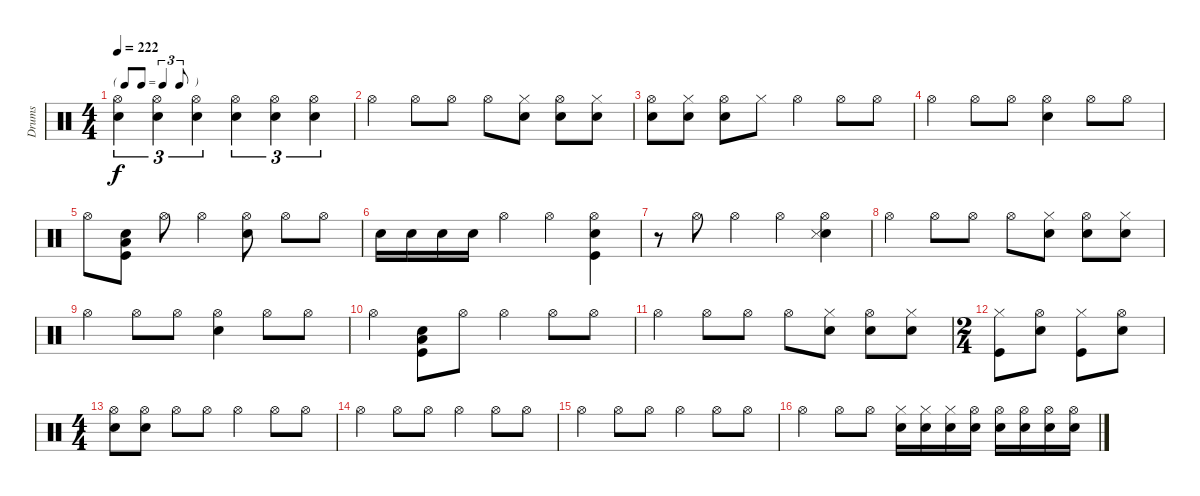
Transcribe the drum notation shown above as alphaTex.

\track ("Drums" "Drums") {instrument percussion}
\staff {score}
\articulation defaults
\ts (4 4)
\tf triplet8th
\tempo 222
\clef neutral
\ks c
("Hi-Hat (open)" "Snare (hit) 2").4{tu (3 2) dy f} ("Hi-Hat (open)" "Snare (hit) 2").4{tu (3 2)} ("Hi-Hat (open)" "Snare (hit) 2").4{tu (3 2)} ("Hi-Hat (open)" "Snare (hit) 2").4{tu (3 2)} ("Hi-Hat (open)" "Snare (hit) 2").4{tu (3 2)} ("Hi-Hat (open)" "Snare (hit) 2").4{tu (3 2)} |
"Hi-Hat (open)".4 "Hi-Hat (open)".8 "Hi-Hat (open)".8 "Hi-Hat (open)".8 ("Hi-Hat (closed)" "Snare (hit) 2").8 ("Snare (hit) 2" "Hi-Hat (open)").8 ("Hi-Hat (closed)" "Snare (hit) 2").8 |
("Snare (hit) 2" "Hi-Hat (open)").8 ("Snare (hit) 2" "Hi-Hat (closed)").8 ("Snare (hit) 2" "Hi-Hat (open)").8 "Hi-Hat (closed)".8 "Hi-Hat (open)".4 "Hi-Hat (open)".8 "Hi-Hat (open)".8 |
"Hi-Hat (open)".4 "Hi-Hat (open)".8 "Hi-Hat (open)".8 ("Snare (hit) 2" "Hi-Hat (open)").4 "Hi-Hat (open)".8 "Hi-Hat (open)".8 |
"Hi-Hat (open)".8 ("Kick (hit)" "Snare (hit) 2" "Low Floor Tom (hit)").8 "Hi-Hat (open)".8 "Hi-Hat (open)".4 ("Snare (hit) 2" "Hi-Hat (open)").8 "Hi-Hat (open)".8 "Hi-Hat (open)".8 |
"Snare (hit) 2".16 "Snare (hit) 2".16 "Snare (hit) 2".16 "Snare (hit) 2".16 "Hi-Hat (open)".4 "Hi-Hat (open)".4 ("Snare (hit) 2" "Hi-Hat (open)" "Kick (hit)").4 |
r.8 "Hi-Hat (open)".8 "Hi-Hat (open)".4 "Hi-Hat (open)".4 ("Hi-Hat (open)" "Snare (hit) 2" "Metronome (hit)").4 |
"Hi-Hat (open)".4 "Hi-Hat (open)".8 "Hi-Hat (open)".8 "Hi-Hat (open)".8 ("Hi-Hat (closed)" "Snare (hit) 2").8 ("Snare (hit) 2" "Hi-Hat (open)").8 ("Hi-Hat (closed)" "Snare (hit) 2").8 |
"Hi-Hat (open)".4 "Hi-Hat (open)".8 "Hi-Hat (open)".8 ("Snare (hit) 2" "Hi-Hat (open)").4 "Hi-Hat (open)".8 "Hi-Hat (open)".8 |
"Hi-Hat (open)".4 ("Kick (hit)" "Snare (hit) 2" "Low Floor Tom (hit)").8 "Hi-Hat (open)".8 "Hi-Hat (open)".4 "Hi-Hat (open)".8 "Hi-Hat (open)".8 |
"Hi-Hat (open)".4 "Hi-Hat (open)".8 "Hi-Hat (open)".8 "Hi-Hat (open)".8 ("Hi-Hat (closed)" "Snare (hit) 2").8 ("Snare (hit) 2" "Hi-Hat (open)").8 ("Hi-Hat (closed)" "Snare (hit) 2").8 |
\ts (2 4)
("Hi-Hat (closed)" "Kick (hit)").8 ("Snare (hit) 2" "Hi-Hat (open)").8 ("Hi-Hat (closed)" "Kick (hit)").8 ("Snare (hit) 2" "Hi-Hat (open)").8 |
\ts (4 4)
("Hi-Hat (open)" "Snare (hit) 2").8 ("Hi-Hat (open)" "Snare (hit) 2").8 "Hi-Hat (open)".8 "Hi-Hat (open)".8 "Hi-Hat (open)".4 "Hi-Hat (open)".8 "Hi-Hat (open)".8 |
"Hi-Hat (open)".4 "Hi-Hat (open)".8 "Hi-Hat (open)".8 "Hi-Hat (open)".4 "Hi-Hat (open)".8 "Hi-Hat (open)".8 |
"Hi-Hat (open)".4 "Hi-Hat (open)".8 "Hi-Hat (open)".8 "Hi-Hat (open)".4 "Hi-Hat (open)".8 "Hi-Hat (open)".8 |
"Hi-Hat (open)".4 "Hi-Hat (open)".8 "Hi-Hat (open)".8 ("Hi-Hat (closed)" "Snare (hit) 2").16 ("Hi-Hat (closed)" "Snare (hit) 2").16 ("Hi-Hat (closed)" "Snare (hit) 2").16 ("Hi-Hat (open)" "Snare (hit) 2").16 ("Hi-Hat (open)" "Snare (hit) 2").16 ("Hi-Hat (open)" "Snare (hit) 2").16 ("Hi-Hat (open)" "Snare (hit) 2").16 ("Hi-Hat (open)" "Snare (hit) 2").16
